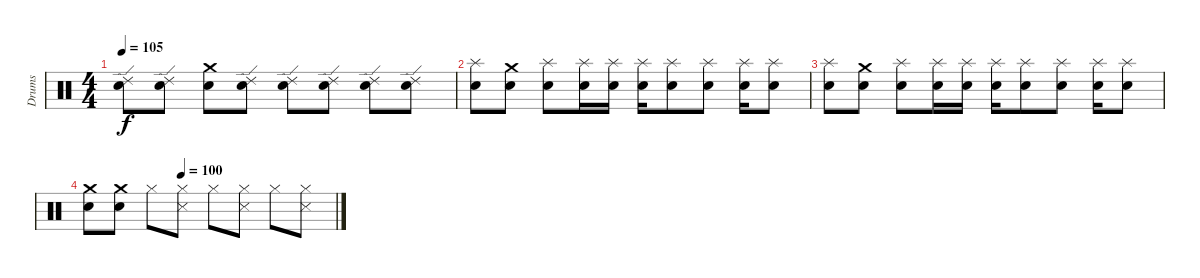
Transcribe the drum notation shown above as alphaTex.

\track ("Drums" "Drums") {instrument percussion}
\staff {score}
\articulation defaults
\ts (4 4)
\tempo 105
\clef neutral
\ks c
("Ride (edge) 2" "Snare (hit) 2").8{dy f} ("Ride (edge) 2" "Snare (hit) 2").8 ("Crash medium (hit)" "Snare (hit) 2").8 ("Ride (edge) 2" "Snare (hit) 2").8 ("Ride (edge) 2" "Snare (hit) 2").8 ("Ride (edge) 2" "Snare (hit) 2").8 ("Ride (edge) 2" "Snare (hit) 2").8 ("Ride (edge) 2" "Snare (hit) 2").8 |
("Splash (hit)" "Snare (hit) 2").8 ("Crash medium (hit)" "Snare (hit) 2").8 ("Splash (hit)" "Snare (hit) 2").8 ("Splash (hit)" "Snare (hit) 2").16 ("Splash (hit)" "Snare (hit) 2").16 ("Splash (hit)" "Snare (hit) 2").16 ("Splash (hit)" "Snare (hit) 2").8 ("Splash (hit)" "Snare (hit) 2").8 ("Splash (hit)" "Snare (hit) 2").16 ("Splash (hit)" "Snare (hit) 2").8 |
("Splash (hit)" "Snare (hit) 2").8 ("Crash medium (hit)" "Snare (hit) 2").8 ("Splash (hit)" "Snare (hit) 2").8 ("Splash (hit)" "Snare (hit) 2").16 ("Splash (hit)" "Snare (hit) 2").16 ("Splash (hit)" "Snare (hit) 2").16 ("Splash (hit)" "Snare (hit) 2").8 ("Splash (hit)" "Snare (hit) 2").8 ("Splash (hit)" "Snare (hit) 2").16 ("Splash (hit)" "Snare (hit) 2").8 |
\tempo (100 0.375)
("Crash medium (hit)" "Snare (hit) 2").8 ("Crash medium (hit)" "Snare (hit) 2").8 "Hi-Hat (closed)".8 ("Hi-Hat (closed)" "Metronome (hit)").8 "Hi-Hat (closed)".8 ("Hi-Hat (closed)" "Metronome (hit)").8 "Hi-Hat (closed)".8 ("Hi-Hat (closed)" "Metronome (hit)").8
